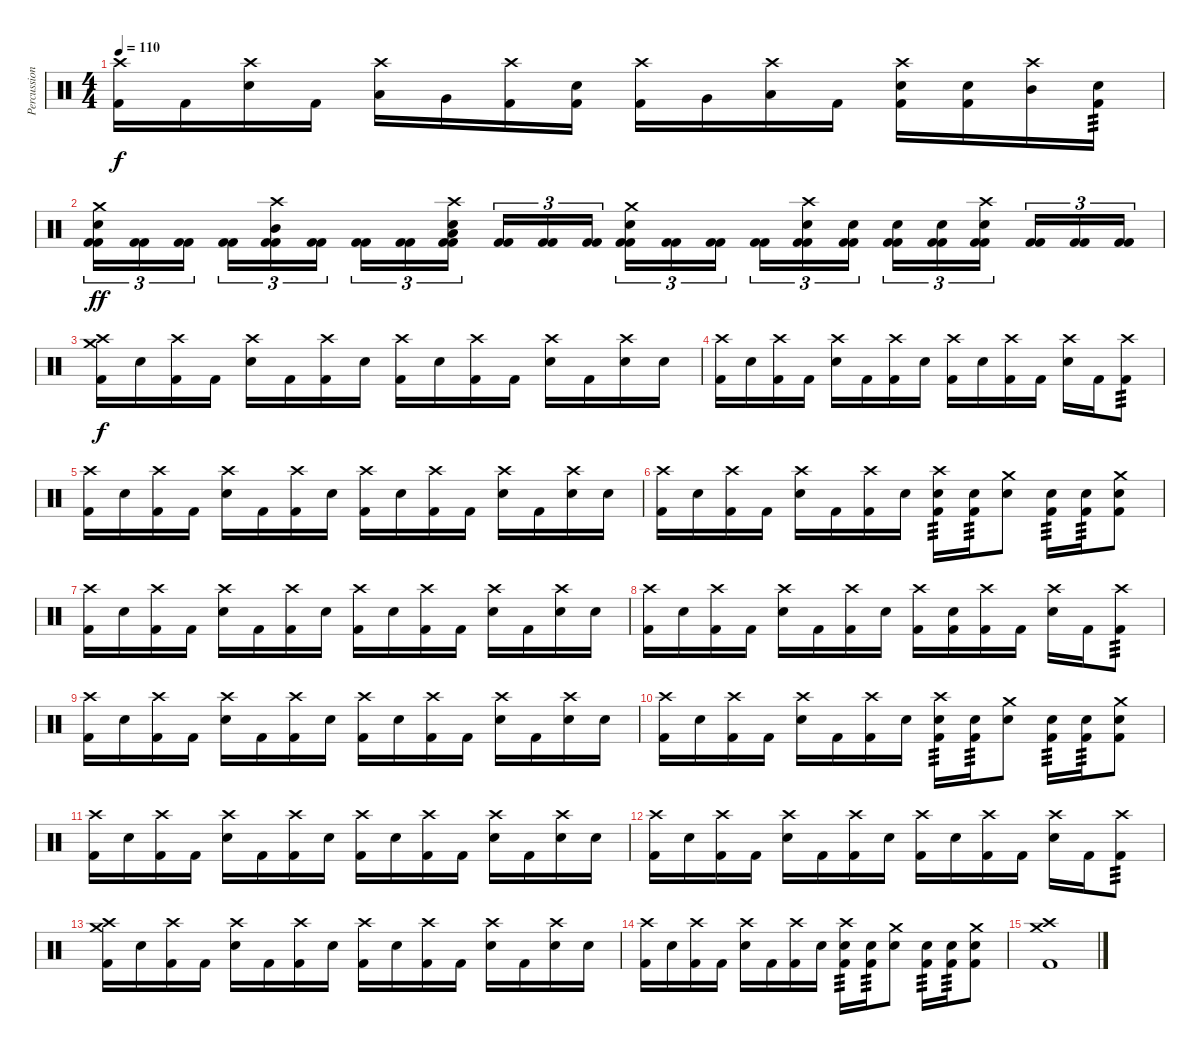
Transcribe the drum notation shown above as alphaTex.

\track ("Percussion" "Percussion") {instrument percussion}
\staff {score}
\articulation defaults
\ts (4 4)
\tempo 110
\clef neutral
\ks c
("Crash high (hit)" "Kick (hit) 2").16{dy f} "Kick (hit) 2".16 ("Crash high (hit)" "Electric Snare (hit)").16 "Kick (hit) 2".16 ("Crash high (hit)" "Low Tom (hit)").16 "Very Low Tom (hit)".16 ("Crash high (hit)" "Kick (hit) 2").16 ("Electric Snare (hit)" "Kick (hit) 2").16 ("Crash high (hit)" "Kick (hit) 2").16 "Very Low Tom (hit)".16 ("Crash high (hit)" "Low Floor Tom (hit)").16 "Kick (hit) 2".16 ("Crash high (hit)" "Electric Snare (hit)" "Kick (hit) 2").16 ("Electric Snare (hit)" "Kick (hit) 2").16 ("Crash high (hit)" "Mid Tom (hit)").16 ("Electric Snare (hit)" "Kick (hit) 2").16{tp 3} |
("Crash medium (hit)" "Electric Snare (hit)" "Kick (hit) 2" "Kick (hit) 2").16{tu (3 2) dy ff} ("Kick (hit) 2" "Kick (hit) 2").16{tu (3 2)} ("Kick (hit) 2" "Kick (hit) 2").16{tu (3 2)} ("Kick (hit) 2" "Kick (hit) 2").16{tu (3 2)} ("Crash high (hit)" "Kick (hit) 2" "Mid Tom (hit)" "Kick (hit) 2").16{tu (3 2)} ("Kick (hit) 2" "Kick (hit) 2").16{tu (3 2)} ("Kick (hit) 2" "Kick (hit) 2").16{tu (3 2)} ("Kick (hit) 2" "Kick (hit) 2").16{tu (3 2)} ("Crash high (hit)" "Electric Snare (hit)" "Kick (hit) 2" "Low Tom (hit)" "Kick (hit) 2").16{tu (3 2)} ("Kick (hit) 2" "Kick (hit) 2").16{tu (3 2)} ("Kick (hit) 2" "Kick (hit) 2").16{tu (3 2)} ("Kick (hit) 2" "Kick (hit) 2").16{tu (3 2)} ("Crash medium (hit)" "Electric Snare (hit)" "Kick (hit) 2" "Kick (hit) 2").16{tu (3 2)} ("Kick (hit) 2" "Kick (hit) 2").16{tu (3 2)} ("Kick (hit) 2" "Kick (hit) 2").16{tu (3 2)} ("Kick (hit) 2" "Kick (hit) 2").16{tu (3 2)} ("Crash high (hit)" "Electric Snare (hit)" "Kick (hit) 2" "Kick (hit) 2").16{tu (3 2)} ("Electric Snare (hit)" "Kick (hit) 2" "Kick (hit) 2").16{tu (3 2)} ("Electric Snare (hit)" "Kick (hit) 2" "Kick (hit) 2").16{tu (3 2)} ("Electric Snare (hit)" "Kick (hit) 2" "Kick (hit) 2").16{tu (3 2)} ("Crash high (hit)" "Electric Snare (hit)" "Kick (hit) 2" "Kick (hit) 2").16{tu (3 2)} ("Kick (hit) 2" "Kick (hit) 2").16{tu (3 2)} ("Kick (hit) 2" "Kick (hit) 2").16{tu (3 2)} ("Kick (hit) 2" "Kick (hit) 2").16{tu (3 2)} |
("Crash high (hit)" "Crash medium (hit)" "Kick (hit) 2").16{dy f} "Electric Snare (hit)".16 ("Crash high (hit)" "Kick (hit) 2").16 "Kick (hit) 2".16 ("Crash high (hit)" "Electric Snare (hit)").16 "Kick (hit) 2".16 ("Crash high (hit)" "Kick (hit) 2").16 "Electric Snare (hit)".16 ("Crash high (hit)" "Kick (hit) 2").16 "Electric Snare (hit)".16 ("Crash high (hit)" "Kick (hit) 2").16 "Kick (hit) 2".16 ("Crash high (hit)" "Electric Snare (hit)").16 "Kick (hit) 2".16 ("Crash high (hit)" "Electric Snare (hit)").16 "Electric Snare (hit)".16 |
("Crash high (hit)" "Kick (hit) 2").16 "Electric Snare (hit)".16 ("Crash high (hit)" "Kick (hit) 2").16 "Kick (hit) 2".16 ("Crash high (hit)" "Electric Snare (hit)").16 "Kick (hit) 2".16 ("Crash high (hit)" "Kick (hit) 2").16 "Electric Snare (hit)".16 ("Crash high (hit)" "Kick (hit) 2").16 "Electric Snare (hit)".16 ("Crash high (hit)" "Kick (hit) 2").16 "Kick (hit) 2".16 ("Crash high (hit)" "Electric Snare (hit)").16 "Kick (hit) 2".16 ("Crash high (hit)" "Kick (hit) 2").8{tp 3} |
("Crash high (hit)" "Kick (hit) 2").16 "Electric Snare (hit)".16 ("Crash high (hit)" "Kick (hit) 2").16 "Kick (hit) 2".16 ("Crash high (hit)" "Electric Snare (hit)").16 "Kick (hit) 2".16 ("Crash high (hit)" "Kick (hit) 2").16 "Electric Snare (hit)".16 ("Crash high (hit)" "Kick (hit) 2").16 "Electric Snare (hit)".16 ("Crash high (hit)" "Kick (hit) 2").16 "Kick (hit) 2".16 ("Crash high (hit)" "Electric Snare (hit)").16 "Kick (hit) 2".16 ("Crash high (hit)" "Electric Snare (hit)").16 "Electric Snare (hit)".16 |
("Crash high (hit)" "Kick (hit) 2").16 "Electric Snare (hit)".16 ("Crash high (hit)" "Kick (hit) 2").16 "Kick (hit) 2".16 ("Crash high (hit)" "Electric Snare (hit)").16 "Kick (hit) 2".16 ("Crash high (hit)" "Kick (hit) 2").16 "Electric Snare (hit)".16 ("Crash high (hit)" "Electric Snare (hit)" "Kick (hit) 2").16{tp 3} ("Electric Snare (hit)" "Kick (hit) 2").16{tp 3} ("Crash medium (hit)" "Electric Snare (hit)").8 ("Electric Snare (hit)" "Kick (hit) 2").16{tp 3} ("Electric Snare (hit)" "Kick (hit) 2").16{tp 3} ("Crash medium (hit)" "Electric Snare (hit)" "Kick (hit) 2").8 |
("Crash high (hit)" "Kick (hit) 2").16 "Electric Snare (hit)".16 ("Crash high (hit)" "Kick (hit) 2").16 "Kick (hit) 2".16 ("Crash high (hit)" "Electric Snare (hit)").16 "Kick (hit) 2".16 ("Crash high (hit)" "Kick (hit) 2").16 "Electric Snare (hit)".16 ("Crash high (hit)" "Kick (hit) 2").16 "Electric Snare (hit)".16 ("Crash high (hit)" "Kick (hit) 2").16 "Kick (hit) 2".16 ("Crash high (hit)" "Electric Snare (hit)").16 "Kick (hit) 2".16 ("Crash high (hit)" "Electric Snare (hit)").16 "Electric Snare (hit)".16 |
("Crash high (hit)" "Kick (hit) 2").16 "Electric Snare (hit)".16 ("Crash high (hit)" "Kick (hit) 2").16 "Kick (hit) 2".16 ("Crash high (hit)" "Electric Snare (hit)").16 "Kick (hit) 2".16 ("Crash high (hit)" "Kick (hit) 2").16 "Electric Snare (hit)".16 ("Crash high (hit)" "Kick (hit) 2").16 ("Electric Snare (hit)" "Kick (hit) 2").16 ("Crash high (hit)" "Kick (hit) 2").16 "Kick (hit) 2".16 ("Crash high (hit)" "Electric Snare (hit)").16 "Kick (hit) 2".16 ("Crash high (hit)" "Kick (hit) 2").8{tp 3} |
("Crash high (hit)" "Kick (hit) 2").16 "Electric Snare (hit)".16 ("Crash high (hit)" "Kick (hit) 2").16 "Kick (hit) 2".16 ("Crash high (hit)" "Electric Snare (hit)").16 "Kick (hit) 2".16 ("Crash high (hit)" "Kick (hit) 2").16 "Electric Snare (hit)".16 ("Crash high (hit)" "Kick (hit) 2").16 "Electric Snare (hit)".16 ("Crash high (hit)" "Kick (hit) 2").16 "Kick (hit) 2".16 ("Crash high (hit)" "Electric Snare (hit)").16 "Kick (hit) 2".16 ("Crash high (hit)" "Electric Snare (hit)").16 "Electric Snare (hit)".16 |
("Crash high (hit)" "Kick (hit) 2").16 "Electric Snare (hit)".16 ("Crash high (hit)" "Kick (hit) 2").16 "Kick (hit) 2".16 ("Crash high (hit)" "Electric Snare (hit)").16 "Kick (hit) 2".16 ("Crash high (hit)" "Kick (hit) 2").16 "Electric Snare (hit)".16 ("Crash high (hit)" "Electric Snare (hit)" "Kick (hit) 2").16{tp 3} ("Electric Snare (hit)" "Kick (hit) 2").16{tp 3} ("Crash medium (hit)" "Electric Snare (hit)").8 ("Electric Snare (hit)" "Kick (hit) 2").16{tp 3} ("Electric Snare (hit)" "Kick (hit) 2").16{tp 3} ("Crash medium (hit)" "Electric Snare (hit)" "Kick (hit) 2").8 |
("Crash high (hit)" "Kick (hit) 2").16 "Electric Snare (hit)".16 ("Crash high (hit)" "Kick (hit) 2").16 "Kick (hit) 2".16 ("Crash high (hit)" "Electric Snare (hit)").16 "Kick (hit) 2".16 ("Crash high (hit)" "Kick (hit) 2").16 "Electric Snare (hit)".16 ("Crash high (hit)" "Kick (hit) 2").16 "Electric Snare (hit)".16 ("Crash high (hit)" "Kick (hit) 2").16 "Kick (hit) 2".16 ("Crash high (hit)" "Electric Snare (hit)").16 "Kick (hit) 2".16 ("Crash high (hit)" "Electric Snare (hit)").16 "Electric Snare (hit)".16 |
("Crash high (hit)" "Kick (hit) 2").16 "Electric Snare (hit)".16 ("Crash high (hit)" "Kick (hit) 2").16 "Kick (hit) 2".16 ("Crash high (hit)" "Electric Snare (hit)").16 "Kick (hit) 2".16 ("Crash high (hit)" "Kick (hit) 2").16 "Electric Snare (hit)".16 ("Crash high (hit)" "Kick (hit) 2").16 "Electric Snare (hit)".16 ("Crash high (hit)" "Kick (hit) 2").16 "Kick (hit) 2".16 ("Crash high (hit)" "Electric Snare (hit)").16 "Kick (hit) 2".16 ("Crash high (hit)" "Kick (hit) 2").8{tp 3} |
("Crash high (hit)" "Crash medium (hit)" "Kick (hit) 2").16 "Electric Snare (hit)".16 ("Crash high (hit)" "Kick (hit) 2").16 "Kick (hit) 2".16 ("Crash high (hit)" "Electric Snare (hit)").16 "Kick (hit) 2".16 ("Crash high (hit)" "Kick (hit) 2").16 "Electric Snare (hit)".16 ("Crash high (hit)" "Kick (hit) 2").16 "Electric Snare (hit)".16 ("Crash high (hit)" "Kick (hit) 2").16 "Kick (hit) 2".16 ("Crash high (hit)" "Electric Snare (hit)").16 "Kick (hit) 2".16 ("Crash high (hit)" "Electric Snare (hit)").16 "Electric Snare (hit)".16 |
("Crash high (hit)" "Kick (hit) 2").16 "Electric Snare (hit)".16 ("Crash high (hit)" "Kick (hit) 2").16 "Kick (hit) 2".16 ("Crash high (hit)" "Electric Snare (hit)").16 "Kick (hit) 2".16 ("Crash high (hit)" "Kick (hit) 2").16 "Electric Snare (hit)".16 ("Crash high (hit)" "Electric Snare (hit)" "Kick (hit) 2").16{tp 3} ("Electric Snare (hit)" "Kick (hit) 2").16{tp 3} ("Crash medium (hit)" "Electric Snare (hit)").8 ("Electric Snare (hit)" "Kick (hit) 2").16{tp 3} ("Electric Snare (hit)" "Kick (hit) 2").16{tp 3} ("Crash medium (hit)" "Electric Snare (hit)" "Kick (hit) 2").8 |
("Crash medium (hit)" "Crash high (hit)" "Kick (hit) 2").1
